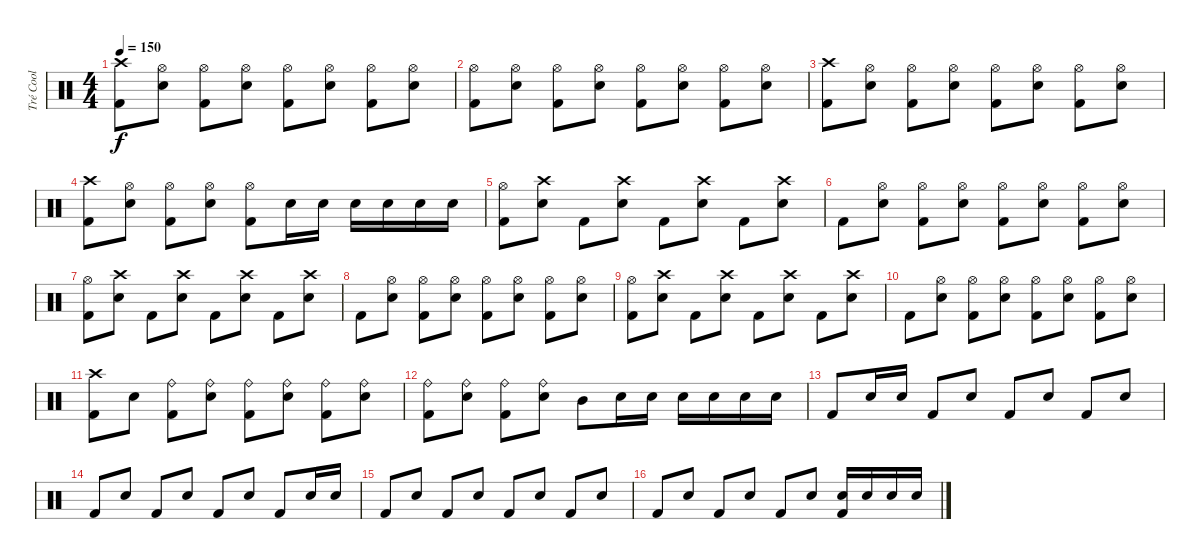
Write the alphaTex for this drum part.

\track ("Tré Cool" "Tré Cool") {instrument percussion}
\staff {score}
\articulation defaults
\ts (4 4)
\tempo 150
\clef neutral
\ks c
("Crash high (hit)" "Kick (hit) 2").8{dy f} ("Hi-Hat (open)" "Electric Snare (hit)").8 ("Hi-Hat (open)" "Kick (hit) 2").8 ("Hi-Hat (open)" "Electric Snare (hit)").8 ("Hi-Hat (open)" "Kick (hit) 2").8 ("Hi-Hat (open)" "Electric Snare (hit)").8 ("Hi-Hat (open)" "Kick (hit) 2").8 ("Hi-Hat (open)" "Electric Snare (hit)").8 |
("Hi-Hat (open)" "Kick (hit) 2").8 ("Hi-Hat (open)" "Electric Snare (hit)").8 ("Hi-Hat (open)" "Kick (hit) 2").8 ("Hi-Hat (open)" "Electric Snare (hit)").8 ("Hi-Hat (open)" "Kick (hit) 2").8 ("Hi-Hat (open)" "Electric Snare (hit)").8 ("Hi-Hat (open)" "Kick (hit) 2").8 ("Hi-Hat (open)" "Electric Snare (hit)").8 |
("Crash high (hit)" "Kick (hit) 2").8 ("Hi-Hat (open)" "Electric Snare (hit)").8 ("Hi-Hat (open)" "Kick (hit) 2").8 ("Hi-Hat (open)" "Electric Snare (hit)").8 ("Hi-Hat (open)" "Kick (hit) 2").8 ("Hi-Hat (open)" "Electric Snare (hit)").8 ("Hi-Hat (open)" "Kick (hit) 2").8 ("Hi-Hat (open)" "Electric Snare (hit)").8 |
("Crash high (hit)" "Kick (hit) 2").8 ("Hi-Hat (open)" "Electric Snare (hit)").8 ("Hi-Hat (open)" "Kick (hit) 2").8 ("Hi-Hat (open)" "Electric Snare (hit)").8 ("Hi-Hat (open)" "Kick (hit) 2").8 "Electric Snare (hit)".16 "Electric Snare (hit)".16 "Electric Snare (hit)".16 "Electric Snare (hit)".16 "Electric Snare (hit)".16 "Electric Snare (hit)".16 |
("Hi-Hat (open)" "Kick (hit) 2").8 ("Crash high (hit)" "Electric Snare (hit)").8 "Kick (hit) 2".8 ("Crash high (hit)" "Electric Snare (hit)").8 "Kick (hit) 2".8 ("Crash high (hit)" "Electric Snare (hit)").8 "Kick (hit) 2".8 ("Crash high (hit)" "Electric Snare (hit)").8 |
"Kick (hit) 2".8 ("Hi-Hat (open)" "Electric Snare (hit)").8 ("Hi-Hat (open)" "Kick (hit) 2").8 ("Hi-Hat (open)" "Electric Snare (hit)").8 ("Hi-Hat (open)" "Kick (hit) 2").8 ("Hi-Hat (open)" "Electric Snare (hit)").8 ("Hi-Hat (open)" "Kick (hit) 2").8 ("Hi-Hat (open)" "Electric Snare (hit)").8 |
("Hi-Hat (open)" "Kick (hit) 2").8 ("Crash high (hit)" "Electric Snare (hit)").8 "Kick (hit) 2".8 ("Crash high (hit)" "Electric Snare (hit)").8 "Kick (hit) 2".8 ("Crash high (hit)" "Electric Snare (hit)").8 "Kick (hit) 2".8 ("Crash high (hit)" "Electric Snare (hit)").8 |
"Kick (hit) 2".8 ("Hi-Hat (open)" "Electric Snare (hit)").8 ("Hi-Hat (open)" "Kick (hit) 2").8 ("Hi-Hat (open)" "Electric Snare (hit)").8 ("Hi-Hat (open)" "Kick (hit) 2").8 ("Hi-Hat (open)" "Electric Snare (hit)").8 ("Hi-Hat (open)" "Kick (hit) 2").8 ("Hi-Hat (open)" "Electric Snare (hit)").8 |
("Hi-Hat (open)" "Kick (hit) 2").8 ("Crash high (hit)" "Electric Snare (hit)").8 "Kick (hit) 2".8 ("Crash high (hit)" "Electric Snare (hit)").8 "Kick (hit) 2".8 ("Crash high (hit)" "Electric Snare (hit)").8 "Kick (hit) 2".8 ("Crash high (hit)" "Electric Snare (hit)").8 |
"Kick (hit) 2".8 ("Hi-Hat (open)" "Electric Snare (hit)").8 ("Hi-Hat (open)" "Kick (hit) 2").8 ("Hi-Hat (open)" "Electric Snare (hit)").8 ("Hi-Hat (open)" "Kick (hit) 2").8 ("Hi-Hat (open)" "Electric Snare (hit)").8 ("Hi-Hat (open)" "Kick (hit) 2").8 ("Hi-Hat (open)" "Electric Snare (hit)").8 |
("Crash high (hit)" "Kick (hit) 2").8 "Electric Snare (hit)".8 ("Ride (bell)" "Kick (hit) 2").8 ("Ride (bell)" "Electric Snare (hit)").8 ("Ride (bell)" "Kick (hit) 2").8 ("Ride (bell)" "Electric Snare (hit)").8 ("Ride (bell)" "Kick (hit) 2").8 ("Ride (bell)" "Electric Snare (hit)").8 |
("Ride (bell)" "Kick (hit) 2").8 ("Ride (bell)" "Electric Snare (hit)").8 ("Ride (bell)" "Kick (hit) 2").8 ("Ride (bell)" "Electric Snare (hit)").8 "Mid Tom (hit)".8 "Electric Snare (hit)".16 "Electric Snare (hit)".16 "Electric Snare (hit)".16 "Electric Snare (hit)".16 "Electric Snare (hit)".16 "Electric Snare (hit)".16 |
"Kick (hit) 2".8 "Electric Snare (hit)".16 "Electric Snare (hit)".16 "Kick (hit) 2".8 "Electric Snare (hit)".8 "Kick (hit) 2".8 "Electric Snare (hit)".8 "Kick (hit) 2".8 "Electric Snare (hit)".8 |
"Kick (hit) 2".8 "Electric Snare (hit)".8 "Kick (hit) 2".8 "Electric Snare (hit)".8 "Kick (hit) 2".8 "Electric Snare (hit)".8 "Kick (hit) 2".8 "Electric Snare (hit)".16 "Electric Snare (hit)".16 |
"Kick (hit) 2".8 "Electric Snare (hit)".8 "Kick (hit) 2".8 "Electric Snare (hit)".8 "Kick (hit) 2".8 "Electric Snare (hit)".8 "Kick (hit) 2".8 "Electric Snare (hit)".8 |
"Kick (hit) 2".8 "Electric Snare (hit)".8 "Kick (hit) 2".8 "Electric Snare (hit)".8 "Kick (hit) 2".8 "Electric Snare (hit)".8 ("Electric Snare (hit)" "Kick (hit) 2").16 "Electric Snare (hit)".16 "Electric Snare (hit)".16 "Electric Snare (hit)".16
